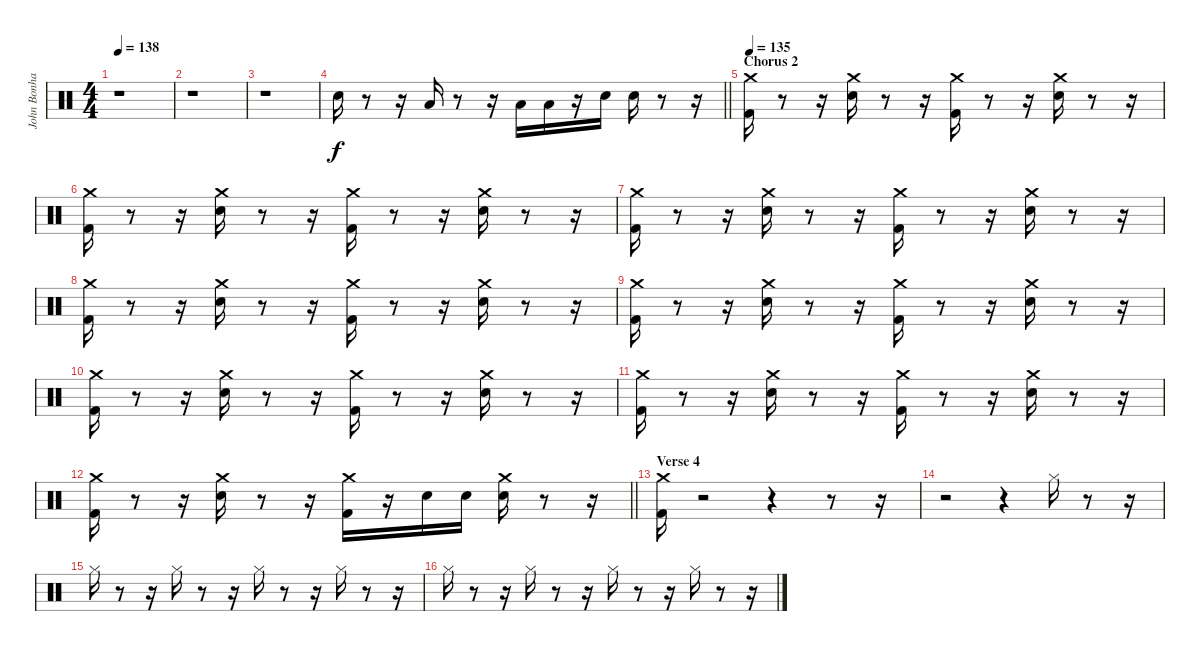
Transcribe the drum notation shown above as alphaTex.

\track ("John Bonham" "John Bonha") {instrument percussion}
\staff {score}
\articulation defaults
\ts (4 4)
\tempo 138
\clef neutral
\ks aminor
r.1{dy f} |
r.1 |
r.1 |
\barLineRight lightlight "Electric Snare (hit)".16
r.8 r.16 "Low Floor Tom (hit)".16 r.8 r.16 "Low Tom (hit)".16 "Low Tom (hit)".16 r.16 "Electric Snare (hit)".16 "Electric Snare (hit)".16 r.8 r.16 |
\section ("" "Chorus 2")
\tempo 135
("Kick (hit) 2" "Crash medium (hit)").16 r.8 r.16 ("Electric Snare (hit)" "Crash medium (hit)").16 r.8 r.16 ("Kick (hit) 2" "Crash medium (hit)").16 r.8 r.16 ("Electric Snare (hit)" "Crash medium (hit)").16 r.8 r.16 |
("Kick (hit) 2" "Crash medium (hit)").16 r.8 r.16 ("Electric Snare (hit)" "Crash medium (hit)").16 r.8 r.16 ("Kick (hit) 2" "Crash medium (hit)").16 r.8 r.16 ("Electric Snare (hit)" "Crash medium (hit)").16 r.8 r.16 |
("Kick (hit) 2" "Crash medium (hit)").16 r.8 r.16 ("Electric Snare (hit)" "Crash medium (hit)").16 r.8 r.16 ("Kick (hit) 2" "Crash medium (hit)").16 r.8 r.16 ("Electric Snare (hit)" "Crash medium (hit)").16 r.8 r.16 |
("Kick (hit) 2" "Crash medium (hit)").16 r.8 r.16 ("Electric Snare (hit)" "Crash medium (hit)").16 r.8 r.16 ("Kick (hit) 2" "Crash medium (hit)").16 r.8 r.16 ("Electric Snare (hit)" "Crash medium (hit)").16 r.8 r.16 |
("Kick (hit) 2" "Crash medium (hit)").16 r.8 r.16 ("Electric Snare (hit)" "Crash medium (hit)").16 r.8 r.16 ("Kick (hit) 2" "Crash medium (hit)").16 r.8 r.16 ("Electric Snare (hit)" "Crash medium (hit)").16 r.8 r.16 |
("Kick (hit) 2" "Crash medium (hit)").16 r.8 r.16 ("Electric Snare (hit)" "Crash medium (hit)").16 r.8 r.16 ("Kick (hit) 2" "Crash medium (hit)").16 r.8 r.16 ("Electric Snare (hit)" "Crash medium (hit)").16 r.8 r.16 |
("Kick (hit) 2" "Crash medium (hit)").16 r.8 r.16 ("Electric Snare (hit)" "Crash medium (hit)").16 r.8 r.16 ("Kick (hit) 2" "Crash medium (hit)").16 r.8 r.16 ("Electric Snare (hit)" "Crash medium (hit)").16 r.8 r.16 |
\barLineRight lightlight
("Kick (hit) 2" "Crash medium (hit)").16 r.8 r.16 ("Electric Snare (hit)" "Crash medium (hit)").16 r.8 r.16 ("Kick (hit) 2" "Crash medium (hit)").16 r.16 "Electric Snare (hit)".16 "Electric Snare (hit)".16 ("Electric Snare (hit)" "Crash medium (hit)").16 r.8 r.16 |
\section ("" "Verse 4")
("Kick (hit) 2" "Crash medium (hit)").16 r.2 r.4 r.8 r.16 |
r.2 r.4 "Hi-Hat (closed)".16 r.8 r.16 |
"Hi-Hat (closed)".16 r.8 r.16 "Hi-Hat (closed)".16 r.8 r.16 "Hi-Hat (closed)".16 r.8 r.16 "Hi-Hat (closed)".16 r.8 r.16 |
"Hi-Hat (closed)".16 r.8 r.16 "Hi-Hat (closed)".16 r.8 r.16 "Hi-Hat (closed)".16 r.8 r.16 "Hi-Hat (closed)".16 r.8 r.16
